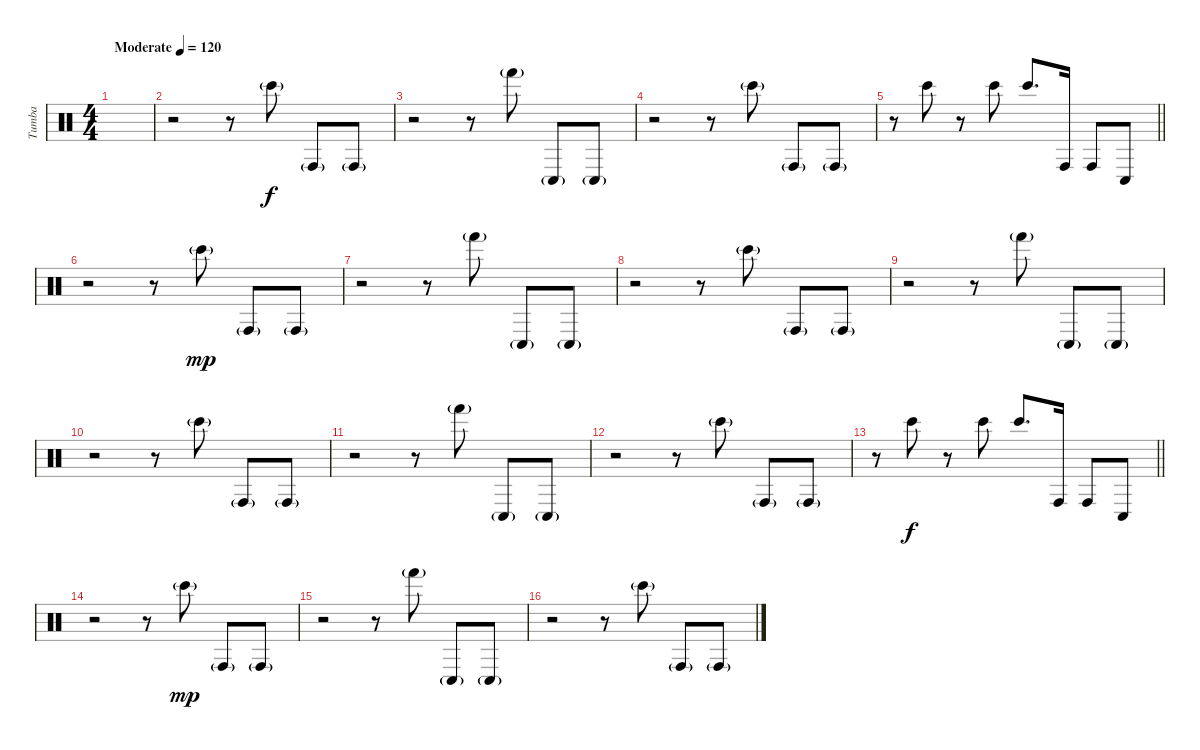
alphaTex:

\track ("Tumba" "Tumba") {instrument percussion}
\staff {score}
\articulation defaults
\ts (4 4)
\tempo (120 "Moderate")
\clef neutral
\ks c
|
r.2 r.8 "Bongo High (hit)"{g}.8 "Conga high (hit)"{g}.8 "Conga high (hit)"{g}.8 |
r.2 r.8 "Hand (hit)"{g}.8 "Conga low (hit)"{g}.8 "Conga low (hit)"{g}.8 |
r.2 r.8 "Bongo High (hit)"{g}.8 "Conga high (hit)"{g}.8 "Conga high (hit)"{g}.8 |
\barLineRight lightlight
r.8 "Bongo High (hit)".8{dy f} r.8 "Bongo High (hit)".8 "Bongo High (hit)".8{d} "Conga high (hit)".16 "Conga high (hit)".8 "Conga low (hit)".8 |
\section ("" "")
r.2 r.8 "Bongo High (hit)"{g}.8{dy mp} "Conga high (hit)"{g}.8 "Conga high (hit)"{g}.8 |
r.2 r.8 "Hand (hit)"{g}.8 "Conga low (hit)"{g}.8 "Conga low (hit)"{g}.8 |
r.2 r.8 "Bongo High (hit)"{g}.8 "Conga high (hit)"{g}.8 "Conga high (hit)"{g}.8 |
r.2 r.8 "Hand (hit)"{g}.8 "Conga low (hit)"{g}.8 "Conga low (hit)"{g}.8 |
r.2 r.8 "Bongo High (hit)"{g}.8 "Conga high (hit)"{g}.8 "Conga high (hit)"{g}.8 |
r.2 r.8 "Hand (hit)"{g}.8 "Conga low (hit)"{g}.8 "Conga low (hit)"{g}.8 |
r.2 r.8 "Bongo High (hit)"{g}.8 "Conga high (hit)"{g}.8 "Conga high (hit)"{g}.8 |
\barLineRight lightlight
r.8 "Bongo High (hit)".8{dy f} r.8 "Bongo High (hit)".8 "Bongo High (hit)".8{d} "Conga high (hit)".16 "Conga high (hit)".8 "Conga low (hit)".8 |
\section ("" "")
r.2 r.8 "Bongo High (hit)"{g}.8{dy mp} "Conga high (hit)"{g}.8 "Conga high (hit)"{g}.8 |
r.2 r.8 "Hand (hit)"{g}.8 "Conga low (hit)"{g}.8 "Conga low (hit)"{g}.8 |
r.2 r.8 "Bongo High (hit)"{g}.8 "Conga high (hit)"{g}.8 "Conga high (hit)"{g}.8
